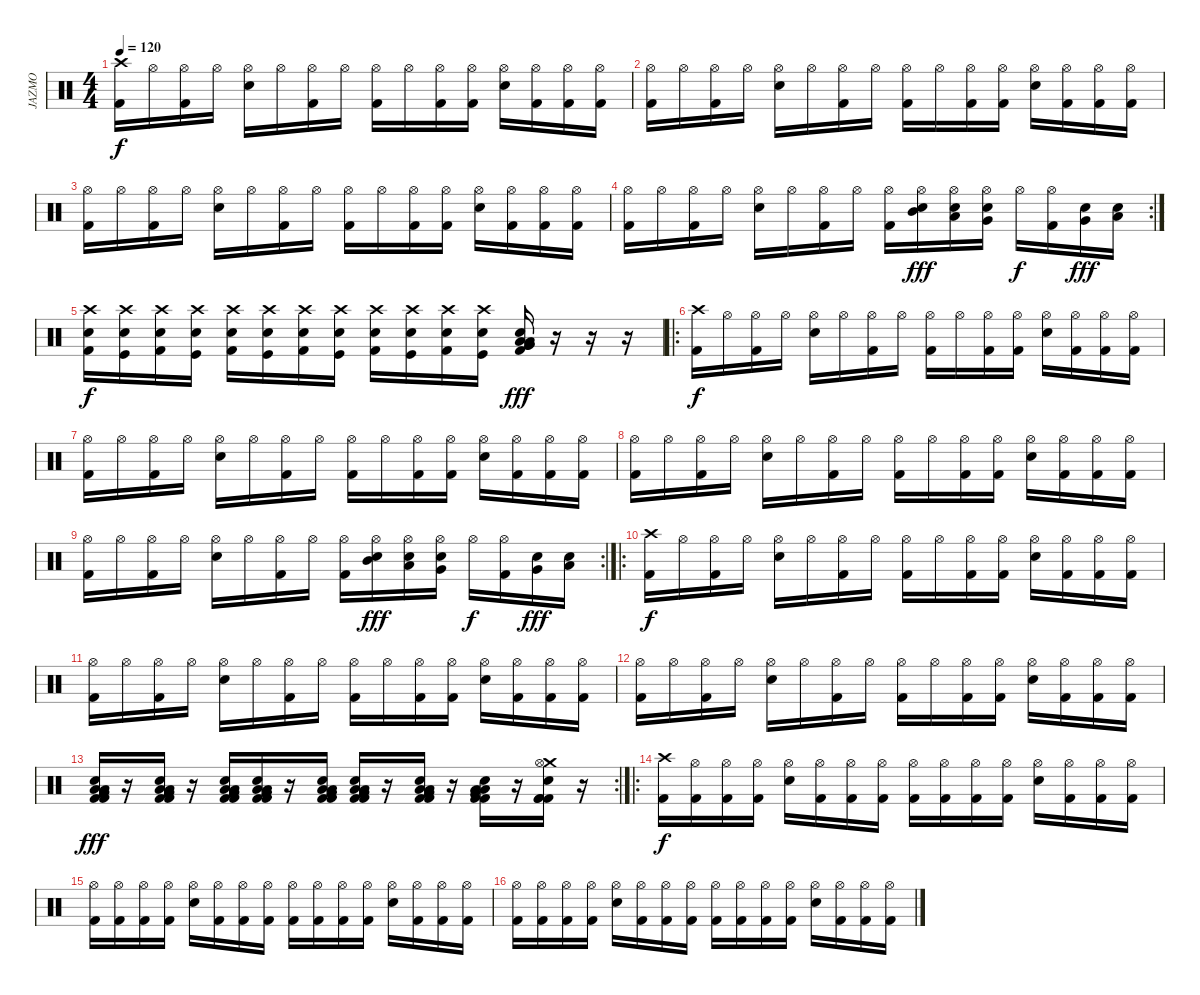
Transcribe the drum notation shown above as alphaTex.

\track ("JAZMO" "JAZMO") {instrument percussion}
\staff {score}
\articulation defaults
\ts (4 4)
\tempo 120
\clef neutral
\ks c
("Crash high (hit)" "Kick (hit) 2").16{dy f} "Hi-Hat (open)".16 ("Hi-Hat (open)" "Kick (hit) 2").16 "Hi-Hat (open)".16 ("Hi-Hat (open)" "Electric Snare (hit)").16 "Hi-Hat (open)".16 ("Hi-Hat (open)" "Kick (hit) 2").16 "Hi-Hat (open)".16 ("Hi-Hat (open)" "Kick (hit) 2").16 "Hi-Hat (open)".16 ("Hi-Hat (open)" "Kick (hit) 2").16 ("Hi-Hat (open)" "Kick (hit) 2").16 ("Hi-Hat (open)" "Electric Snare (hit)").16 ("Hi-Hat (open)" "Kick (hit) 2").16 ("Hi-Hat (open)" "Kick (hit) 2").16 ("Hi-Hat (open)" "Kick (hit) 2").16 |
("Hi-Hat (open)" "Kick (hit) 2").16 "Hi-Hat (open)".16 ("Hi-Hat (open)" "Kick (hit) 2").16 "Hi-Hat (open)".16 ("Hi-Hat (open)" "Electric Snare (hit)").16 "Hi-Hat (open)".16 ("Hi-Hat (open)" "Kick (hit) 2").16 "Hi-Hat (open)".16 ("Hi-Hat (open)" "Kick (hit) 2").16 "Hi-Hat (open)".16 ("Hi-Hat (open)" "Kick (hit) 2").16 ("Hi-Hat (open)" "Kick (hit) 2").16 ("Hi-Hat (open)" "Electric Snare (hit)").16 ("Hi-Hat (open)" "Kick (hit) 2").16 ("Hi-Hat (open)" "Kick (hit) 2").16 ("Hi-Hat (open)" "Kick (hit) 2").16 |
("Hi-Hat (open)" "Kick (hit) 2").16 "Hi-Hat (open)".16 ("Hi-Hat (open)" "Kick (hit) 2").16 "Hi-Hat (open)".16 ("Hi-Hat (open)" "Electric Snare (hit)").16 "Hi-Hat (open)".16 ("Hi-Hat (open)" "Kick (hit) 2").16 "Hi-Hat (open)".16 ("Hi-Hat (open)" "Kick (hit) 2").16 "Hi-Hat (open)".16 ("Hi-Hat (open)" "Kick (hit) 2").16 ("Hi-Hat (open)" "Kick (hit) 2").16 ("Hi-Hat (open)" "Electric Snare (hit)").16 ("Hi-Hat (open)" "Kick (hit) 2").16 ("Hi-Hat (open)" "Kick (hit) 2").16 ("Hi-Hat (open)" "Kick (hit) 2").16 |
\rc 2
("Hi-Hat (open)" "Kick (hit) 2").16 "Hi-Hat (open)".16 ("Hi-Hat (open)" "Kick (hit) 2").16 "Hi-Hat (open)".16 ("Hi-Hat (open)" "Electric Snare (hit)").16 "Hi-Hat (open)".16 ("Hi-Hat (open)" "Kick (hit) 2").16 "Hi-Hat (open)".16 ("Hi-Hat (open)" "Kick (hit) 2").16 ("Hi-Hat (open)" "Mid Tom (hit)" "Electric Snare (hit)").16{dy fff} ("Hi-Hat (open)" "Low Tom (hit)" "Electric Snare (hit)").16 ("Hi-Hat (open)" "Very Low Tom (hit)" "Electric Snare (hit)").16 "Hi-Hat (open)".16{dy f} ("Hi-Hat (open)" "Kick (hit) 2").16 ("Very Low Tom (hit)" "Electric Snare (hit)").16{dy fff} ("Low Floor Tom (hit)" "Electric Snare (hit)").16 |
("Kick (hit) 2" "Crash high (hit)" "Electric Snare (hit)").16{dy f} ("Kick (hit)" "Crash high (hit)" "Electric Snare (hit)").16 ("Kick (hit) 2" "Crash high (hit)" "Electric Snare (hit)").16 ("Kick (hit)" "Crash high (hit)" "Electric Snare (hit)").16 ("Kick (hit) 2" "Crash high (hit)" "Electric Snare (hit)").16 ("Kick (hit)" "Crash high (hit)" "Electric Snare (hit)").16 ("Kick (hit) 2" "Crash high (hit)" "Electric Snare (hit)").16 ("Kick (hit)" "Crash high (hit)" "Electric Snare (hit)").16 ("Kick (hit) 2" "Crash high (hit)" "Electric Snare (hit)").16 ("Kick (hit)" "Crash high (hit)" "Electric Snare (hit)").16 ("Kick (hit) 2" "Crash high (hit)" "Electric Snare (hit)").16 ("Kick (hit)" "Crash high (hit)" "Electric Snare (hit)").16 ("Low Floor Tom (hit)" "Very Low Tom (hit)" "Low Floor Tom (hit)" "Kick (hit) 2" "Very Low Tom (hit)" "Electric Snare (hit)").16{dy fff} r.16 r.16 r.16 |
\ro
("Crash high (hit)" "Kick (hit) 2").16{dy f} "Hi-Hat (open)".16 ("Hi-Hat (open)" "Kick (hit) 2").16 "Hi-Hat (open)".16 ("Hi-Hat (open)" "Electric Snare (hit)").16 "Hi-Hat (open)".16 ("Hi-Hat (open)" "Kick (hit) 2").16 "Hi-Hat (open)".16 ("Hi-Hat (open)" "Kick (hit) 2").16 "Hi-Hat (open)".16 ("Hi-Hat (open)" "Kick (hit) 2").16 ("Hi-Hat (open)" "Kick (hit) 2").16 ("Hi-Hat (open)" "Electric Snare (hit)").16 ("Hi-Hat (open)" "Kick (hit) 2").16 ("Hi-Hat (open)" "Kick (hit) 2").16 ("Hi-Hat (open)" "Kick (hit) 2").16 |
("Hi-Hat (open)" "Kick (hit) 2").16 "Hi-Hat (open)".16 ("Hi-Hat (open)" "Kick (hit) 2").16 "Hi-Hat (open)".16 ("Hi-Hat (open)" "Electric Snare (hit)").16 "Hi-Hat (open)".16 ("Hi-Hat (open)" "Kick (hit) 2").16 "Hi-Hat (open)".16 ("Hi-Hat (open)" "Kick (hit) 2").16 "Hi-Hat (open)".16 ("Hi-Hat (open)" "Kick (hit) 2").16 ("Hi-Hat (open)" "Kick (hit) 2").16 ("Hi-Hat (open)" "Electric Snare (hit)").16 ("Hi-Hat (open)" "Kick (hit) 2").16 ("Hi-Hat (open)" "Kick (hit) 2").16 ("Hi-Hat (open)" "Kick (hit) 2").16 |
("Hi-Hat (open)" "Kick (hit) 2").16 "Hi-Hat (open)".16 ("Hi-Hat (open)" "Kick (hit) 2").16 "Hi-Hat (open)".16 ("Hi-Hat (open)" "Electric Snare (hit)").16 "Hi-Hat (open)".16 ("Hi-Hat (open)" "Kick (hit) 2").16 "Hi-Hat (open)".16 ("Hi-Hat (open)" "Kick (hit) 2").16 "Hi-Hat (open)".16 ("Hi-Hat (open)" "Kick (hit) 2").16 ("Hi-Hat (open)" "Kick (hit) 2").16 ("Hi-Hat (open)" "Electric Snare (hit)").16 ("Hi-Hat (open)" "Kick (hit) 2").16 ("Hi-Hat (open)" "Kick (hit) 2").16 ("Hi-Hat (open)" "Kick (hit) 2").16 |
\rc 2
("Hi-Hat (open)" "Kick (hit) 2").16 "Hi-Hat (open)".16 ("Hi-Hat (open)" "Kick (hit) 2").16 "Hi-Hat (open)".16 ("Hi-Hat (open)" "Electric Snare (hit)").16 "Hi-Hat (open)".16 ("Hi-Hat (open)" "Kick (hit) 2").16 "Hi-Hat (open)".16 ("Hi-Hat (open)" "Kick (hit) 2").16 ("Hi-Hat (open)" "Mid Tom (hit)" "Electric Snare (hit)").16{dy fff} ("Hi-Hat (open)" "Low Tom (hit)" "Electric Snare (hit)").16 ("Hi-Hat (open)" "Very Low Tom (hit)" "Electric Snare (hit)").16 "Hi-Hat (open)".16{dy f} ("Hi-Hat (open)" "Kick (hit) 2").16 ("Very Low Tom (hit)" "Electric Snare (hit)").16{dy fff} ("Low Floor Tom (hit)" "Electric Snare (hit)").16 |
\ro
("Crash high (hit)" "Kick (hit) 2").16{dy f} "Hi-Hat (open)".16 ("Hi-Hat (open)" "Kick (hit) 2").16 "Hi-Hat (open)".16 ("Hi-Hat (open)" "Electric Snare (hit)").16 "Hi-Hat (open)".16 ("Hi-Hat (open)" "Kick (hit) 2").16 "Hi-Hat (open)".16 ("Hi-Hat (open)" "Kick (hit) 2").16 "Hi-Hat (open)".16 ("Hi-Hat (open)" "Kick (hit) 2").16 ("Hi-Hat (open)" "Kick (hit) 2").16 ("Hi-Hat (open)" "Electric Snare (hit)").16 ("Hi-Hat (open)" "Kick (hit) 2").16 ("Hi-Hat (open)" "Kick (hit) 2").16 ("Hi-Hat (open)" "Kick (hit) 2").16 |
("Hi-Hat (open)" "Kick (hit) 2").16 "Hi-Hat (open)".16 ("Hi-Hat (open)" "Kick (hit) 2").16 "Hi-Hat (open)".16 ("Hi-Hat (open)" "Electric Snare (hit)").16 "Hi-Hat (open)".16 ("Hi-Hat (open)" "Kick (hit) 2").16 "Hi-Hat (open)".16 ("Hi-Hat (open)" "Kick (hit) 2").16 "Hi-Hat (open)".16 ("Hi-Hat (open)" "Kick (hit) 2").16 ("Hi-Hat (open)" "Kick (hit) 2").16 ("Hi-Hat (open)" "Electric Snare (hit)").16 ("Hi-Hat (open)" "Kick (hit) 2").16 ("Hi-Hat (open)" "Kick (hit) 2").16 ("Hi-Hat (open)" "Kick (hit) 2").16 |
("Hi-Hat (open)" "Kick (hit) 2").16 "Hi-Hat (open)".16 ("Hi-Hat (open)" "Kick (hit) 2").16 "Hi-Hat (open)".16 ("Hi-Hat (open)" "Electric Snare (hit)").16 "Hi-Hat (open)".16 ("Hi-Hat (open)" "Kick (hit) 2").16 "Hi-Hat (open)".16 ("Hi-Hat (open)" "Kick (hit) 2").16 "Hi-Hat (open)".16 ("Hi-Hat (open)" "Kick (hit) 2").16 ("Hi-Hat (open)" "Kick (hit) 2").16 ("Hi-Hat (open)" "Electric Snare (hit)").16 ("Hi-Hat (open)" "Kick (hit) 2").16 ("Hi-Hat (open)" "Kick (hit) 2").16 ("Hi-Hat (open)" "Kick (hit) 2").16 |
\rc 2
("Kick (hit) 2" "Low Floor Tom (hit)" "Very Low Tom (hit)" "Low Floor Tom (hit)" "Electric Snare (hit)" "Kick (hit) 2").16{dy fff} r.16 ("Kick (hit) 2" "Low Floor Tom (hit)" "Very Low Tom (hit)" "Low Floor Tom (hit)" "Electric Snare (hit)" "Kick (hit) 2").16 r.16 ("Kick (hit) 2" "Low Floor Tom (hit)" "Very Low Tom (hit)" "Low Floor Tom (hit)" "Electric Snare (hit)" "Kick (hit) 2").16 ("Kick (hit) 2" "Low Floor Tom (hit)" "Very Low Tom (hit)" "Low Floor Tom (hit)" "Electric Snare (hit)" "Kick (hit) 2").16 r.16 ("Kick (hit) 2" "Low Floor Tom (hit)" "Very Low Tom (hit)" "Low Floor Tom (hit)" "Electric Snare (hit)" "Kick (hit) 2").16 ("Kick (hit) 2" "Low Floor Tom (hit)" "Very Low Tom (hit)" "Low Floor Tom (hit)" "Electric Snare (hit)" "Kick (hit) 2").16 r.16 ("Kick (hit) 2" "Low Floor Tom (hit)" "Very Low Tom (hit)" "Low Floor Tom (hit)" "Electric Snare (hit)" "Kick (hit) 2").16 r.16 ("Kick (hit) 2" "Low Floor Tom (hit)" "Very Low Tom (hit)" "Low Floor Tom (hit)" "Electric Snare (hit)" "Kick (hit) 2").16 r.16 ("Crash medium (hit)" "Hi-Hat (open)" "Kick (hit) 2" "Kick (hit) 2" "Electric Snare (hit)" "Kick (hit) 2").16 r.16 |
\ro
("Crash high (hit)" "Kick (hit) 2").16{dy f} ("Hi-Hat (open)" "Kick (hit) 2").16 ("Hi-Hat (open)" "Kick (hit) 2").16 ("Hi-Hat (open)" "Kick (hit) 2").16 ("Hi-Hat (open)" "Electric Snare (hit)").16 ("Hi-Hat (open)" "Kick (hit) 2").16 ("Hi-Hat (open)" "Kick (hit) 2").16 ("Hi-Hat (open)" "Kick (hit) 2").16 ("Hi-Hat (open)" "Kick (hit) 2").16 ("Hi-Hat (open)" "Kick (hit) 2").16 ("Hi-Hat (open)" "Kick (hit) 2").16 ("Hi-Hat (open)" "Kick (hit) 2").16 ("Hi-Hat (open)" "Electric Snare (hit)").16 ("Hi-Hat (open)" "Kick (hit) 2").16 ("Hi-Hat (open)" "Kick (hit) 2").16 ("Hi-Hat (open)" "Kick (hit) 2").16 |
("Hi-Hat (open)" "Kick (hit) 2").16 ("Hi-Hat (open)" "Kick (hit) 2").16 ("Hi-Hat (open)" "Kick (hit) 2").16 ("Hi-Hat (open)" "Kick (hit) 2").16 ("Hi-Hat (open)" "Electric Snare (hit)").16 ("Hi-Hat (open)" "Kick (hit) 2").16 ("Hi-Hat (open)" "Kick (hit) 2").16 ("Hi-Hat (open)" "Kick (hit) 2").16 ("Hi-Hat (open)" "Kick (hit) 2").16 ("Hi-Hat (open)" "Kick (hit) 2").16 ("Hi-Hat (open)" "Kick (hit) 2").16 ("Hi-Hat (open)" "Kick (hit) 2").16 ("Hi-Hat (open)" "Electric Snare (hit)").16 ("Hi-Hat (open)" "Kick (hit) 2").16 ("Hi-Hat (open)" "Kick (hit) 2").16 ("Hi-Hat (open)" "Kick (hit) 2").16 |
("Hi-Hat (open)" "Kick (hit) 2").16 ("Hi-Hat (open)" "Kick (hit) 2").16 ("Hi-Hat (open)" "Kick (hit) 2").16 ("Hi-Hat (open)" "Kick (hit) 2").16 ("Hi-Hat (open)" "Electric Snare (hit)").16 ("Hi-Hat (open)" "Kick (hit) 2").16 ("Hi-Hat (open)" "Kick (hit) 2").16 ("Hi-Hat (open)" "Kick (hit) 2").16 ("Hi-Hat (open)" "Kick (hit) 2").16 ("Hi-Hat (open)" "Kick (hit) 2").16 ("Hi-Hat (open)" "Kick (hit) 2").16 ("Hi-Hat (open)" "Kick (hit) 2").16 ("Hi-Hat (open)" "Electric Snare (hit)").16 ("Hi-Hat (open)" "Kick (hit) 2").16 ("Hi-Hat (open)" "Kick (hit) 2").16 ("Hi-Hat (open)" "Kick (hit) 2").16
